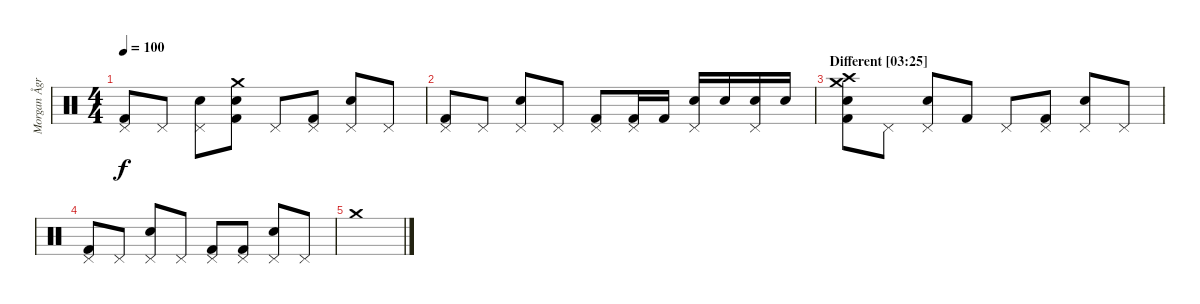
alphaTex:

\track ("Morgan Ågren" "Morgan Ågr") {instrument percussion}
\staff {score}
\articulation defaults
\ts (4 4)
\tempo 100
\clef neutral
\ks c
("Pedal Hi-Hat (hit)" "Kick (hit) 2").8{dy f} "Pedal Hi-Hat (hit)".8 ("Pedal Hi-Hat (hit)" "Electric Snare (hit)").8 ("Crash medium (hit)" "Electric Snare (hit)" "Kick (hit) 2").8 "Pedal Hi-Hat (hit)".8 ("Pedal Hi-Hat (hit)" "Kick (hit) 2").8 ("Pedal Hi-Hat (hit)" "Electric Snare (hit)").8 "Pedal Hi-Hat (hit)".8 |
("Pedal Hi-Hat (hit)" "Kick (hit) 2").8 "Pedal Hi-Hat (hit)".8 ("Pedal Hi-Hat (hit)" "Electric Snare (hit)").8 "Pedal Hi-Hat (hit)".8 ("Pedal Hi-Hat (hit)" "Kick (hit) 2").8 ("Pedal Hi-Hat (hit)" "Kick (hit) 2").16 "Kick (hit) 2".16 ("Pedal Hi-Hat (hit)" "Electric Snare (hit)").16 "Electric Snare (hit)".16 ("Pedal Hi-Hat (hit)" "Electric Snare (hit)").16 "Electric Snare (hit)".16 |
\section ("" "Different [03:25]")
("Crash medium (hit)" "Crash high (hit)" "Electric Snare (hit)" "Kick (hit) 2").8 "Pedal Hi-Hat (hit)".8 ("Pedal Hi-Hat (hit)" "Electric Snare (hit)").8 "Kick (hit) 2".8 "Pedal Hi-Hat (hit)".8 ("Pedal Hi-Hat (hit)" "Kick (hit) 2").8 ("Pedal Hi-Hat (hit)" "Electric Snare (hit)").8 "Pedal Hi-Hat (hit)".8 |
("Pedal Hi-Hat (hit)" "Kick (hit) 2").8 "Pedal Hi-Hat (hit)".8 ("Pedal Hi-Hat (hit)" "Electric Snare (hit)").8 "Pedal Hi-Hat (hit)".8 ("Pedal Hi-Hat (hit)" "Kick (hit) 2").8 ("Pedal Hi-Hat (hit)" "Kick (hit) 2").8 ("Pedal Hi-Hat (hit)" "Electric Snare (hit)").8 "Pedal Hi-Hat (hit)".8 |
"Crash medium (hit)".1
